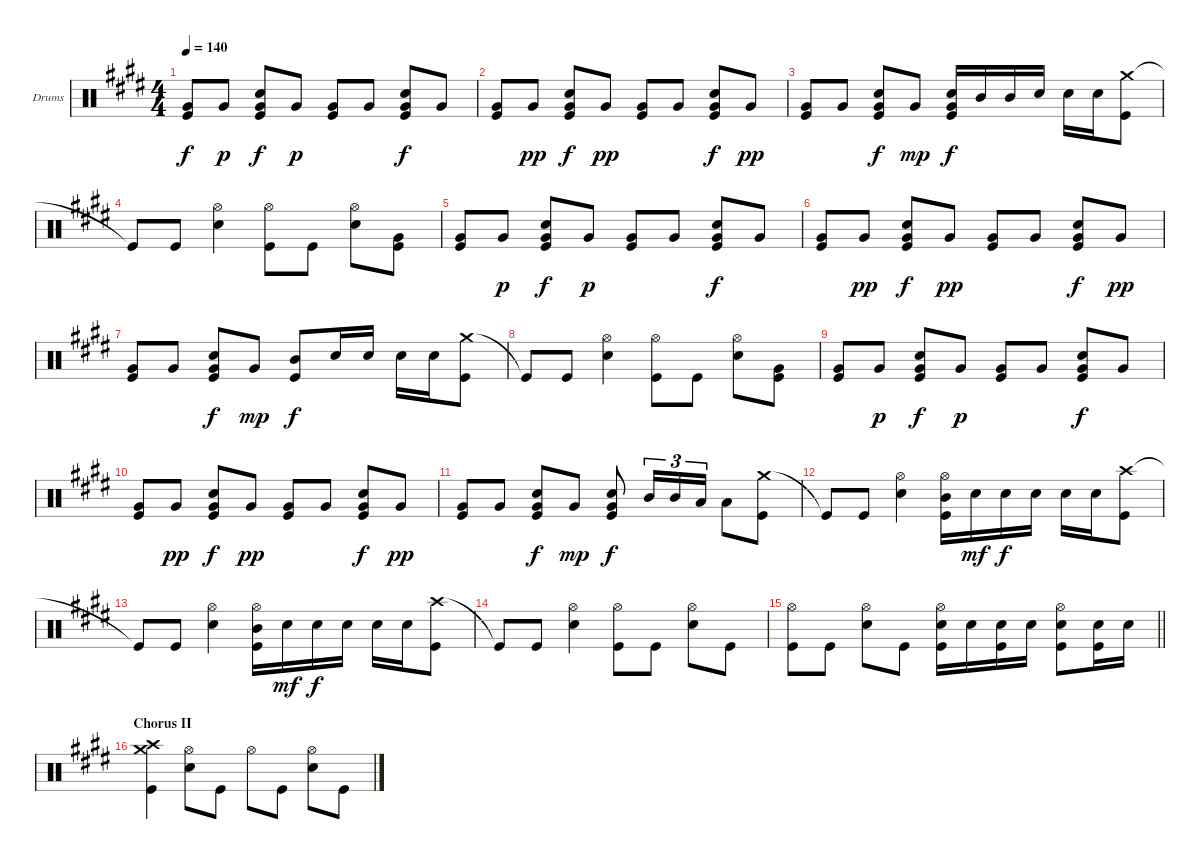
\bracketExtendMode groupsimilarinstruments
\firstSystemTrackNameOrientation horizontal
\otherSystemsTrackNameOrientation horizontal
\track ("Drumkit" "Drums") {instrument percussion}
\staff {score}
\articulation defaults
\ts (4 4)
\tempo 140
\clef neutral
\ks e
("Very Low Tom (hit)" "Kick (hit)").8{dy f} "Very Low Tom (hit)".8{dy p} ("Snare (hit) 2" "Very Low Tom (hit)" "Kick (hit)").8{dy f} "Very Low Tom (hit)".8{dy p} ("Very Low Tom (hit)" "Kick (hit)").8 "Very Low Tom (hit)".8 ("Snare (hit) 2" "Very Low Tom (hit)" "Kick (hit)").8{dy f} "Very Low Tom (hit)".8 |
("Very Low Tom (hit)" "Kick (hit)").8 "Very Low Tom (hit)".8{dy pp} ("Snare (hit) 2" "Very Low Tom (hit)" "Kick (hit)").8{dy f} "Very Low Tom (hit)".8{dy pp} ("Very Low Tom (hit)" "Kick (hit)").8 "Very Low Tom (hit)".8 ("Snare (hit) 2" "Very Low Tom (hit)" "Kick (hit)").8{dy f} "Very Low Tom (hit)".8{dy pp} |
("Very Low Tom (hit)" "Kick (hit)").8 "Very Low Tom (hit)".8 ("Snare (hit) 2" "Very Low Tom (hit)" "Kick (hit)").8{dy f} "Very Low Tom (hit)".8{dy mp} ("Snare (hit) 2" "Very Low Tom (hit)" "Kick (hit)").16{dy f} "Mid Tom (hit)".16 "Mid Tom (hit)".16 "Snare (hit) 2".16 "Snare (hit) 2".16 "Snare (hit) 2".16 ("Crash medium (hit)" "Kick (hit)").8 |
"Kick (hit)"{t}.8 "Kick (hit)".8 ("Hi-Hat (open)" "Snare (hit) 2").4 ("Hi-Hat (open)" "Kick (hit)").8 "Kick (hit)".8 ("Hi-Hat (open)" "Snare (hit) 2").8 ("Very Low Tom (hit)" "Kick (hit)").8 |
("Very Low Tom (hit)" "Kick (hit)").8 "Very Low Tom (hit)".8{dy p} ("Snare (hit) 2" "Very Low Tom (hit)" "Kick (hit)").8{dy f} "Very Low Tom (hit)".8{dy p} ("Very Low Tom (hit)" "Kick (hit)").8 "Very Low Tom (hit)".8 ("Snare (hit) 2" "Very Low Tom (hit)" "Kick (hit)").8{dy f} "Very Low Tom (hit)".8 |
("Very Low Tom (hit)" "Kick (hit)").8 "Very Low Tom (hit)".8{dy pp} ("Snare (hit) 2" "Very Low Tom (hit)" "Kick (hit)").8{dy f} "Very Low Tom (hit)".8{dy pp} ("Very Low Tom (hit)" "Kick (hit)").8 "Very Low Tom (hit)".8 ("Snare (hit) 2" "Very Low Tom (hit)" "Kick (hit)").8{dy f} "Very Low Tom (hit)".8{dy pp} |
("Very Low Tom (hit)" "Kick (hit)").8 "Very Low Tom (hit)".8 ("Snare (hit) 2" "Very Low Tom (hit)" "Kick (hit)").8{dy f} "Very Low Tom (hit)".8{dy mp} ("Mid Tom (hit)" "Kick (hit)").8{dy f} "Snare (hit) 2".16 "Snare (hit) 2".16 "Snare (hit) 2".16 "Snare (hit) 2".16 ("Crash medium (hit)" "Kick (hit)").8 |
"Kick (hit)"{t}.8 "Kick (hit)".8 ("Hi-Hat (open)" "Snare (hit) 2").4 ("Hi-Hat (open)" "Kick (hit)").8 "Kick (hit)".8 ("Hi-Hat (open)" "Snare (hit) 2").8 ("Very Low Tom (hit)" "Kick (hit)").8 |
("Very Low Tom (hit)" "Kick (hit)").8 "Very Low Tom (hit)".8{dy p} ("Snare (hit) 2" "Very Low Tom (hit)" "Kick (hit)").8{dy f} "Very Low Tom (hit)".8{dy p} ("Very Low Tom (hit)" "Kick (hit)").8 "Very Low Tom (hit)".8 ("Snare (hit) 2" "Very Low Tom (hit)" "Kick (hit)").8{dy f} "Very Low Tom (hit)".8 |
("Very Low Tom (hit)" "Kick (hit)").8 "Very Low Tom (hit)".8{dy pp} ("Snare (hit) 2" "Very Low Tom (hit)" "Kick (hit)").8{dy f} "Very Low Tom (hit)".8{dy pp} ("Very Low Tom (hit)" "Kick (hit)").8 "Very Low Tom (hit)".8 ("Snare (hit) 2" "Very Low Tom (hit)" "Kick (hit)").8{dy f} "Very Low Tom (hit)".8{dy pp} |
("Very Low Tom (hit)" "Kick (hit)").8 "Very Low Tom (hit)".8 ("Snare (hit) 2" "Very Low Tom (hit)" "Kick (hit)").8{dy f} "Very Low Tom (hit)".8{dy mp} ("Snare (hit) 2" "Very Low Tom (hit)" "Kick (hit)").8{dy f} "Mid Tom (hit)".16{tu (3 2)} "Mid Tom (hit)".16{tu (3 2)} "Low Tom (hit)".16{tu (3 2)} "Low Tom (hit)".8 ("Crash medium (hit)" "Kick (hit)").8 |
"Kick (hit)"{t}.8 "Kick (hit)".8 ("Hi-Hat (open)" "Snare (hit) 2").4 ("Hi-Hat (open)" "Mid Tom (hit)" "Kick (hit)").16 "Snare (hit) 2".16{dy mf} "Snare (hit) 2".16{dy f} "Snare (hit) 2".16 "Snare (hit) 2".16 "Snare (hit) 2".16 ("Crash high (hit)" "Kick (hit)").8 |
"Kick (hit)"{t}.8 "Kick (hit)".8 ("Hi-Hat (open)" "Snare (hit) 2").4 ("Hi-Hat (open)" "Mid Tom (hit)" "Kick (hit)").16 "Snare (hit) 2".16{dy mf} "Snare (hit) 2".16{dy f} "Snare (hit) 2".16 "Snare (hit) 2".16 "Snare (hit) 2".16 ("Crash high (hit)" "Kick (hit)").8 |
"Kick (hit)"{t}.8 "Kick (hit)".8 ("Hi-Hat (open)" "Snare (hit) 2").4 ("Hi-Hat (open)" "Kick (hit)").8 "Kick (hit)".8 ("Hi-Hat (open)" "Snare (hit) 2").8 "Kick (hit)".8 |
\barLineRight lightlight
("Hi-Hat (open)" "Kick (hit)").8 "Kick (hit)".8 ("Hi-Hat (open)" "Snare (hit) 2").8 "Kick (hit)".8 ("Hi-Hat (open)" "Snare (hit) 2" "Kick (hit)").16 "Snare (hit) 2".16 ("Snare (hit) 2" "Kick (hit)").16 "Snare (hit) 2".16 ("Hi-Hat (open)" "Snare (hit) 2" "Kick (hit)").8 ("Snare (hit) 2" "Kick (hit)").16 "Snare (hit) 2".16 |
\section ("" "Chorus II")
("Crash high (hit)" "Crash medium (hit)" "Kick (hit)").4 ("Hi-Hat (open)" "Snare (hit) 2").8 "Kick (hit)".8 "Hi-Hat (open)".8 "Kick (hit)".8 ("Hi-Hat (open)" "Snare (hit) 2").8 "Kick (hit)".8
